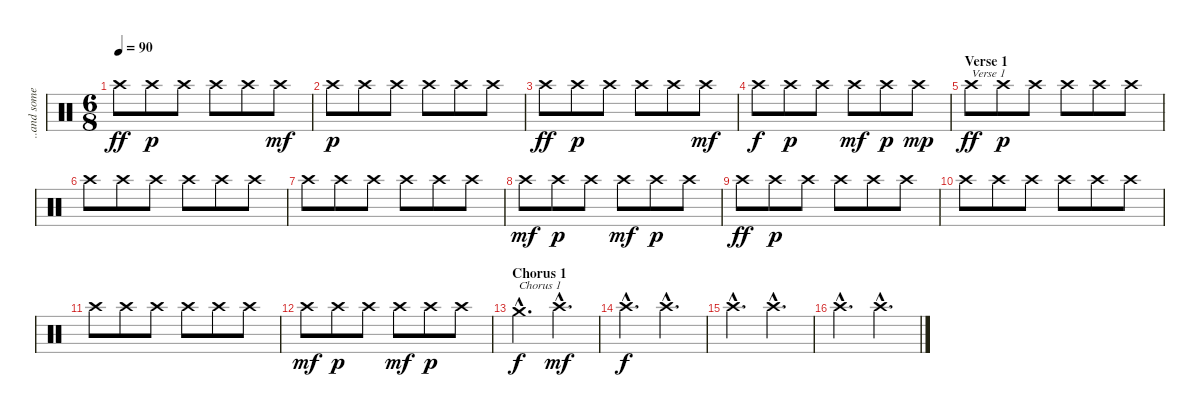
\track ("..and some cymbals" "..and some") {instrument percussion}
\staff {score}
\articulation defaults
\ts (6 8)
\tempo 90
\clef neutral
\ks c "Crash high (hit)".8{dy ff} "Crash high (hit)".8{dy p} "Crash high (hit)".8 "Crash high (hit)".8 "Crash high (hit)".8 "Crash high (hit)".8{dy mf}
|
"Crash high (hit)".8{dy p} "Crash high (hit)".8 "Crash high (hit)".8 "Crash high (hit)".8 "Crash high (hit)".8 "Crash high (hit)".8 |
"Crash high (hit)".8{dy ff} "Crash high (hit)".8{dy p} "Crash high (hit)".8 "Crash high (hit)".8 "Crash high (hit)".8 "Crash high (hit)".8{dy mf} |
"Crash high (hit)".8{dy f} "Crash high (hit)".8{dy p} "Crash high (hit)".8 "Crash high (hit)".8{dy mf} "Crash high (hit)".8{dy p} "Crash high (hit)".8{dy mp} |
\section ("" "Verse 1")
"Crash high (hit)".8{txt "Verse 1" dy ff} "Crash high (hit)".8{dy p} "Crash high (hit)".8 "Crash high (hit)".8 "Crash high (hit)".8 "Crash high (hit)".8 |
"Crash high (hit)".8 "Crash high (hit)".8 "Crash high (hit)".8 "Crash high (hit)".8 "Crash high (hit)".8 "Crash high (hit)".8 |
"Crash high (hit)".8 "Crash high (hit)".8 "Crash high (hit)".8 "Crash high (hit)".8 "Crash high (hit)".8 "Crash high (hit)".8 |
"Crash high (hit)".8{dy mf} "Crash high (hit)".8{dy p} "Crash high (hit)".8 "Crash high (hit)".8{dy mf} "Crash high (hit)".8{dy p} "Crash high (hit)".8 |
"Crash high (hit)".8{dy ff} "Crash high (hit)".8{dy p} "Crash high (hit)".8 "Crash high (hit)".8 "Crash high (hit)".8 "Crash high (hit)".8 |
"Crash high (hit)".8 "Crash high (hit)".8 "Crash high (hit)".8 "Crash high (hit)".8 "Crash high (hit)".8 "Crash high (hit)".8 |
"Crash high (hit)".8 "Crash high (hit)".8 "Crash high (hit)".8 "Crash high (hit)".8 "Crash high (hit)".8 "Crash high (hit)".8 |
"Crash high (hit)".8{dy mf} "Crash high (hit)".8{dy p} "Crash high (hit)".8 "Crash high (hit)".8{dy mf} "Crash high (hit)".8{dy p} "Crash high (hit)".8 |
\section ("" "Chorus 1")
"Crash medium (hit)"{hac}.4{d txt "Chorus 1" dy f} "Crash high (hit)"{hac}.4{d dy mf} |
"Crash high (hit)"{hac}.4{d dy f} "Crash high (hit)"{hac}.4{d} |
"Crash high (hit)"{hac}.4{d} "Crash high (hit)"{hac}.4{d} |
"Crash high (hit)"{hac}.4{d} "Crash high (hit)"{hac}.4{d}
